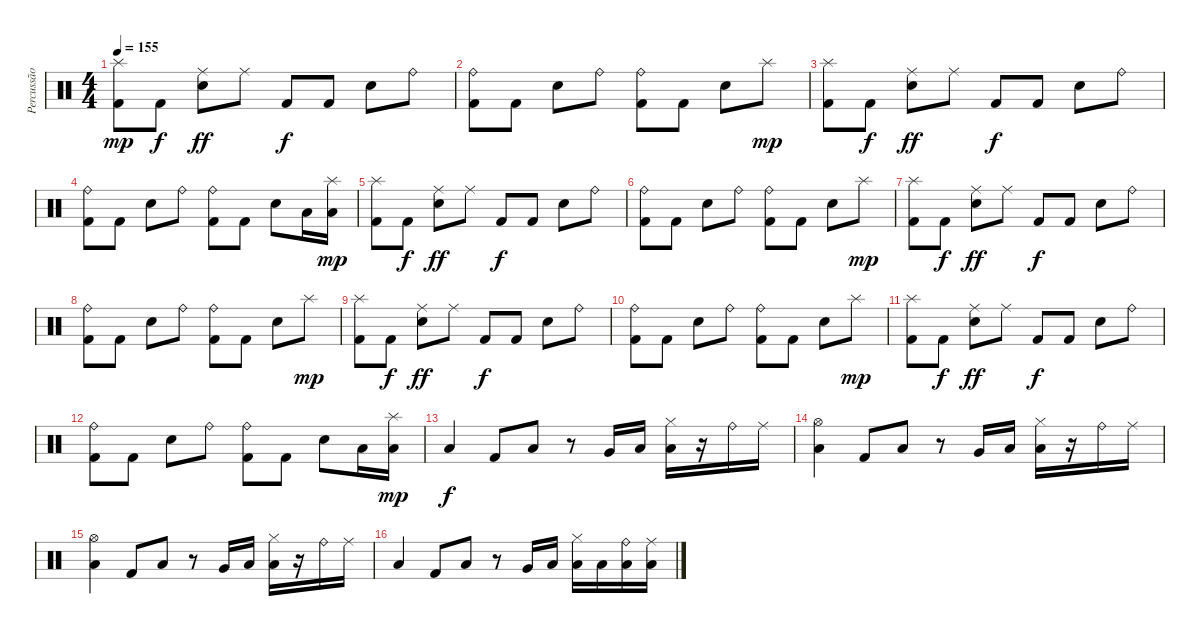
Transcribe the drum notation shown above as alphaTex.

\track ("Percussão" "Percussão") {instrument percussion}
\staff {score}
\articulation defaults
\ts (4 4)
\tempo 155
\clef neutral
\ks c
("Splash (hit)" "Kick (hit) 2").8{dy mp} "Kick (hit) 2".8{dy f} ("Ride (middle)" "Electric Snare (hit)").8{dy ff} "Ride (middle)".8 "Kick (hit) 2".8{dy f} "Kick (hit) 2".8 "Electric Snare (hit)".8 "Ride (bell)".8 |
("Ride (bell)" "Kick (hit) 2").8 "Kick (hit) 2".8 "Electric Snare (hit)".8 "Ride (bell)".8 ("Ride (bell)" "Kick (hit) 2").8 "Kick (hit) 2".8 "Electric Snare (hit)".8 "Splash (hit)".8{dy mp} |
("Splash (hit)" "Kick (hit) 2").8 "Kick (hit) 2".8{dy f} ("Ride (middle)" "Electric Snare (hit)").8{dy ff} "Ride (middle)".8 "Kick (hit) 2".8{dy f} "Kick (hit) 2".8 "Electric Snare (hit)".8 "Ride (bell)".8 |
("Ride (bell)" "Kick (hit) 2").8 "Kick (hit) 2".8 "Electric Snare (hit)".8 "Ride (bell)".8 ("Ride (bell)" "Kick (hit) 2").8 "Kick (hit) 2".8 "Electric Snare (hit)".8 "Low Tom (hit)".16 ("Splash (hit)" "Low Tom (hit)").16{dy mp} |
("Splash (hit)" "Kick (hit) 2").8 "Kick (hit) 2".8{dy f} ("Ride (middle)" "Electric Snare (hit)").8{dy ff} "Ride (middle)".8 "Kick (hit) 2".8{dy f} "Kick (hit) 2".8 "Electric Snare (hit)".8 "Ride (bell)".8 |
("Ride (bell)" "Kick (hit) 2").8 "Kick (hit) 2".8 "Electric Snare (hit)".8 "Ride (bell)".8 ("Ride (bell)" "Kick (hit) 2").8 "Kick (hit) 2".8 "Electric Snare (hit)".8 "Splash (hit)".8{dy mp} |
("Splash (hit)" "Kick (hit) 2").8 "Kick (hit) 2".8{dy f} ("Ride (middle)" "Electric Snare (hit)").8{dy ff} "Ride (middle)".8 "Kick (hit) 2".8{dy f} "Kick (hit) 2".8 "Electric Snare (hit)".8 "Ride (bell)".8 |
("Ride (bell)" "Kick (hit) 2").8 "Kick (hit) 2".8 "Electric Snare (hit)".8 "Ride (bell)".8 ("Ride (bell)" "Kick (hit) 2").8 "Kick (hit) 2".8 "Electric Snare (hit)".8 "Splash (hit)".8{dy mp} |
("Splash (hit)" "Kick (hit) 2").8 "Kick (hit) 2".8{dy f} ("Ride (middle)" "Electric Snare (hit)").8{dy ff} "Ride (middle)".8 "Kick (hit) 2".8{dy f} "Kick (hit) 2".8 "Electric Snare (hit)".8 "Ride (bell)".8 |
("Ride (bell)" "Kick (hit) 2").8 "Kick (hit) 2".8 "Electric Snare (hit)".8 "Ride (bell)".8 ("Ride (bell)" "Kick (hit) 2").8 "Kick (hit) 2".8 "Electric Snare (hit)".8 "Splash (hit)".8{dy mp} |
("Splash (hit)" "Kick (hit) 2").8 "Kick (hit) 2".8{dy f} ("Ride (middle)" "Electric Snare (hit)").8{dy ff} "Ride (middle)".8 "Kick (hit) 2".8{dy f} "Kick (hit) 2".8 "Electric Snare (hit)".8 "Ride (bell)".8 |
("Ride (bell)" "Kick (hit) 2").8 "Kick (hit) 2".8 "Electric Snare (hit)".8 "Ride (bell)".8 ("Ride (bell)" "Kick (hit) 2").8 "Kick (hit) 2".8 "Electric Snare (hit)".8 "Low Tom (hit)".16 ("Splash (hit)" "Low Tom (hit)").16{dy mp} |
"Low Tom (hit)".4{dy f} "Kick (hit) 2".8 "Low Tom (hit)".8 r.8 "Very Low Tom (hit)".16 "Low Tom (hit)".16 ("Hi-Hat (closed)" "Low Tom (hit)").16 r.16 "Ride (bell)".16 "Ride (middle)".16 |
("Hi-Hat (open)" "Low Tom (hit)").4 "Kick (hit) 2".8 "Low Tom (hit)".8 r.8 "Very Low Tom (hit)".16 "Low Tom (hit)".16 ("Hi-Hat (closed)" "Low Tom (hit)").16 r.16 "Ride (bell)".16 "Ride (middle)".16 |
("Hi-Hat (open)" "Low Tom (hit)").4 "Kick (hit) 2".8 "Low Tom (hit)".8 r.8 "Very Low Tom (hit)".16 "Low Tom (hit)".16 ("Hi-Hat (closed)" "Low Tom (hit)").16 r.16 "Ride (bell)".16 "Ride (middle)".16 |
"Low Tom (hit)".4 "Kick (hit) 2".8 "Low Tom (hit)".8 r.8 "Very Low Tom (hit)".16 "Low Tom (hit)".16 ("Hi-Hat (closed)" "Low Tom (hit)").16 "Low Tom (hit)".16 ("Ride (bell)" "Low Tom (hit)").16 ("Ride (middle)" "Low Tom (hit)").16
